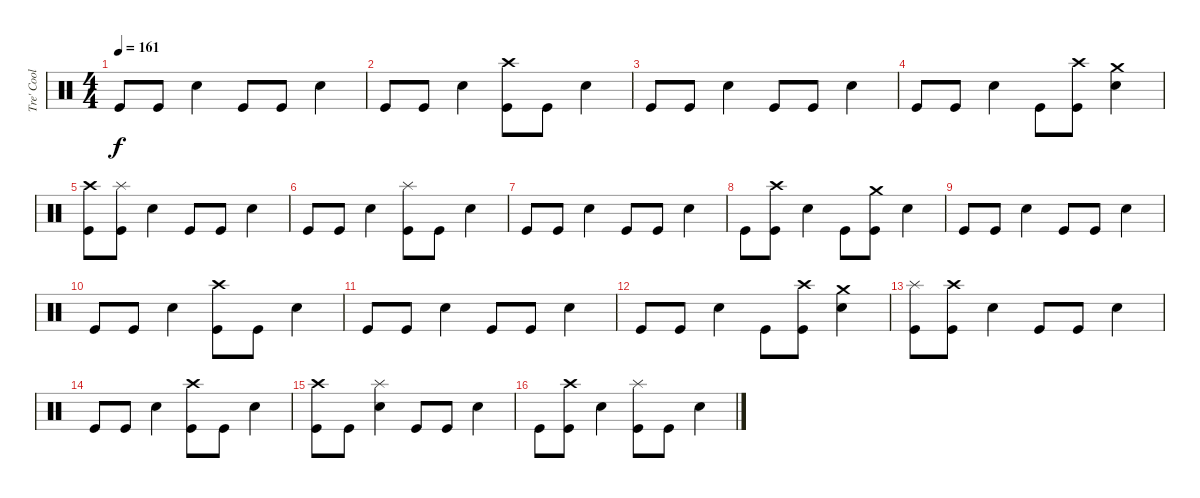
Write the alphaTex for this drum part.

\track ("Tre' Cool" "Tre' Cool") {instrument percussion}
\staff {score}
\articulation defaults
\ts (4 4)
\tempo 161
\clef neutral
\ks c "Kick (hit)".8{dy f} "Kick (hit)".8 "Snare (hit) 2".4 "Kick (hit)".8 "Kick (hit)".8 "Snare (hit) 2".4
|
"Kick (hit)".8 "Kick (hit)".8 "Snare (hit) 2".4 ("Kick (hit)" "Crash high (hit)").8 "Kick (hit)".8 "Snare (hit) 2".4 |
"Kick (hit)".8 "Kick (hit)".8 "Snare (hit) 2".4 "Kick (hit)".8 "Kick (hit)".8 "Snare (hit) 2".4 |
"Kick (hit)".8 "Kick (hit)".8 "Snare (hit) 2".4 "Kick (hit)".8 ("Kick (hit)" "Crash high (hit)").8 ("Snare (hit) 2" "Crash medium (hit)").4 |
("Kick (hit)" "Crash high (hit)").8 ("Kick (hit)" "Splash (hit)").8 "Snare (hit) 2".4 "Kick (hit)".8 "Kick (hit)".8 "Snare (hit) 2".4 |
"Kick (hit)".8 "Kick (hit)".8 "Snare (hit) 2".4 ("Kick (hit)" "Splash (hit)").8 "Kick (hit)".8 "Snare (hit) 2".4 |
"Kick (hit)".8 "Kick (hit)".8 "Snare (hit) 2".4 "Kick (hit)".8 "Kick (hit)".8 "Snare (hit) 2".4 |
"Kick (hit)".8 ("Kick (hit)" "Crash high (hit)").8 "Snare (hit) 2".4 "Kick (hit)".8 ("Kick (hit)" "Crash medium (hit)").8 "Snare (hit) 2".4 |
"Kick (hit)".8 "Kick (hit)".8 "Snare (hit) 2".4 "Kick (hit)".8 "Kick (hit)".8 "Snare (hit) 2".4 |
"Kick (hit)".8 "Kick (hit)".8 "Snare (hit) 2".4 ("Kick (hit)" "Crash high (hit)").8 "Kick (hit)".8 "Snare (hit) 2".4 |
"Kick (hit)".8 "Kick (hit)".8 "Snare (hit) 2".4 "Kick (hit)".8 "Kick (hit)".8 "Snare (hit) 2".4 |
"Kick (hit)".8 "Kick (hit)".8 "Snare (hit) 2".4 "Kick (hit)".8 ("Kick (hit)" "Crash high (hit)").8 ("Snare (hit) 2" "Crash medium (hit)").4 |
("Kick (hit)" "Splash (hit)").8 ("Kick (hit)" "Crash high (hit)").8 "Snare (hit) 2".4 "Kick (hit)".8 "Kick (hit)".8 "Snare (hit) 2".4 |
"Kick (hit)".8 "Kick (hit)".8 "Snare (hit) 2".4 ("Kick (hit)" "Crash high (hit)").8 "Kick (hit)".8 "Snare (hit) 2".4 |
("Kick (hit)" "Crash high (hit)").8 "Kick (hit)".8 ("Snare (hit) 2" "Splash (hit)").4 "Kick (hit)".8 "Kick (hit)".8 "Snare (hit) 2".4 |
"Kick (hit)".8 ("Kick (hit)" "Crash high (hit)").8 "Snare (hit) 2".4 ("Kick (hit)" "Splash (hit)").8 "Kick (hit)".8 "Snare (hit) 2".4
